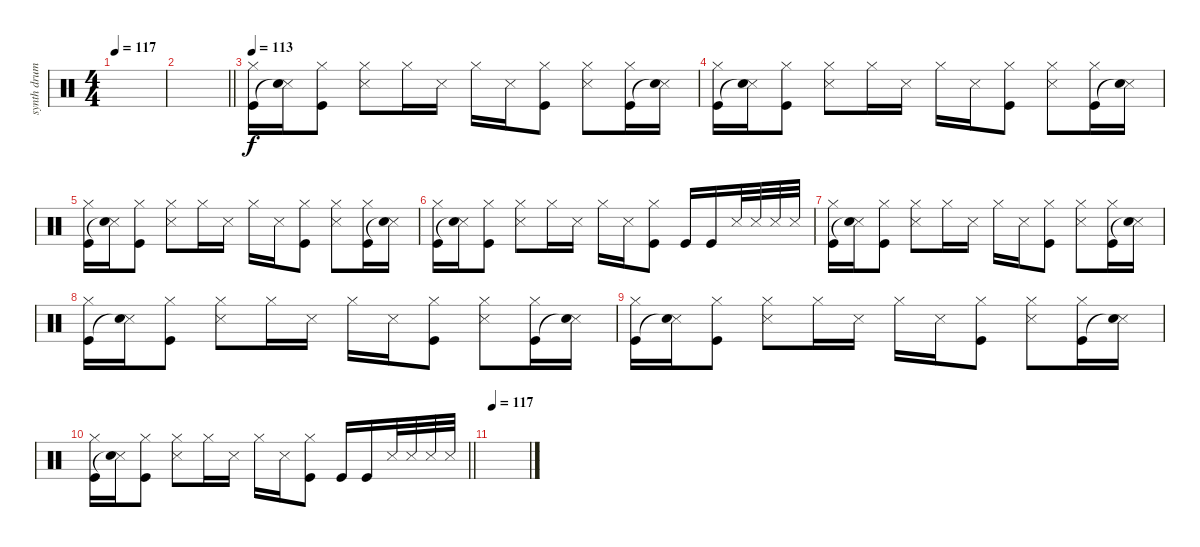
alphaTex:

\track ("synth drums" "synth drum") {instrument percussion}
\staff {score}
\articulation defaults
\ts (4 4)
\tempo 117
\clef neutral
\ks c
|
\barLineRight lightlight
|
\tempo 113
("Hi-Hat (closed)" "Kick (hit)").16 ("Metronome (hit)" "Snare (hit)"{t}).16 ("Hi-Hat (closed)" "Kick (hit)").8 ("Hi-Hat (closed)" "Metronome (hit)").8 "Hi-Hat (closed)".16 "Metronome (hit)".16 "Hi-Hat (closed)".16 "Metronome (hit)".16 ("Hi-Hat (closed)" "Kick (hit)").8 ("Hi-Hat (closed)" "Metronome (hit)").8 ("Hi-Hat (closed)" "Kick (hit)").16 ("Metronome (hit)" "Snare (hit)"{t}).16 |
("Hi-Hat (closed)" "Kick (hit)").16 ("Metronome (hit)" "Snare (hit)"{t}).16 ("Hi-Hat (closed)" "Kick (hit)").8 ("Hi-Hat (closed)" "Metronome (hit)").8 "Hi-Hat (closed)".16 "Metronome (hit)".16 "Hi-Hat (closed)".16 "Metronome (hit)".16 ("Hi-Hat (closed)" "Kick (hit)").8 ("Hi-Hat (closed)" "Metronome (hit)").8 ("Hi-Hat (closed)" "Kick (hit)").16 ("Metronome (hit)" "Snare (hit)"{t}).16 |
("Hi-Hat (closed)" "Kick (hit)").16 ("Metronome (hit)" "Snare (hit)"{t}).16 ("Hi-Hat (closed)" "Kick (hit)").8 ("Hi-Hat (closed)" "Metronome (hit)").8 "Hi-Hat (closed)".16 "Metronome (hit)".16 "Hi-Hat (closed)".16 "Metronome (hit)".16 ("Hi-Hat (closed)" "Kick (hit)").8 ("Hi-Hat (closed)" "Metronome (hit)").8 ("Hi-Hat (closed)" "Kick (hit)").16 ("Metronome (hit)" "Snare (hit)"{t}).16 |
("Hi-Hat (closed)" "Kick (hit)").16 ("Metronome (hit)" "Snare (hit)"{t}).16 ("Hi-Hat (closed)" "Kick (hit)").8 ("Hi-Hat (closed)" "Metronome (hit)").8 "Hi-Hat (closed)".16 "Metronome (hit)".16 "Hi-Hat (closed)".16 "Metronome (hit)".16 ("Hi-Hat (closed)" "Kick (hit)").8 "Kick (hit)".16 "Kick (hit)".16 "Metronome (hit)".32 "Metronome (hit)".32 "Metronome (hit)".32 "Metronome (hit)".32 |
("Hi-Hat (closed)" "Kick (hit)").16 ("Metronome (hit)" "Snare (hit)"{t}).16 ("Hi-Hat (closed)" "Kick (hit)").8 ("Hi-Hat (closed)" "Metronome (hit)").8 "Hi-Hat (closed)".16 "Metronome (hit)".16 "Hi-Hat (closed)".16 "Metronome (hit)".16 ("Hi-Hat (closed)" "Kick (hit)").8 ("Hi-Hat (closed)" "Metronome (hit)").8 ("Hi-Hat (closed)" "Kick (hit)").16 ("Metronome (hit)" "Snare (hit)"{t}).16 |
("Hi-Hat (closed)" "Kick (hit)").16 ("Metronome (hit)" "Snare (hit)"{t}).16 ("Hi-Hat (closed)" "Kick (hit)").8 ("Hi-Hat (closed)" "Metronome (hit)").8 "Hi-Hat (closed)".16 "Metronome (hit)".16 "Hi-Hat (closed)".16 "Metronome (hit)".16 ("Hi-Hat (closed)" "Kick (hit)").8 ("Hi-Hat (closed)" "Metronome (hit)").8 ("Hi-Hat (closed)" "Kick (hit)").16 ("Metronome (hit)" "Snare (hit)"{t}).16 |
("Hi-Hat (closed)" "Kick (hit)").16 ("Metronome (hit)" "Snare (hit)"{t}).16 ("Hi-Hat (closed)" "Kick (hit)").8 ("Hi-Hat (closed)" "Metronome (hit)").8 "Hi-Hat (closed)".16 "Metronome (hit)".16 "Hi-Hat (closed)".16 "Metronome (hit)".16 ("Hi-Hat (closed)" "Kick (hit)").8 ("Hi-Hat (closed)" "Metronome (hit)").8 ("Hi-Hat (closed)" "Kick (hit)").16 ("Metronome (hit)" "Snare (hit)"{t}).16 |
\barLineRight lightlight
("Hi-Hat (closed)" "Kick (hit)").16 ("Metronome (hit)" "Snare (hit)"{t}).16 ("Hi-Hat (closed)" "Kick (hit)").8 ("Hi-Hat (closed)" "Metronome (hit)").8 "Hi-Hat (closed)".16 "Metronome (hit)".16 "Hi-Hat (closed)".16 "Metronome (hit)".16 ("Hi-Hat (closed)" "Kick (hit)").8 "Kick (hit)".16 "Kick (hit)".16 "Metronome (hit)".32 "Metronome (hit)".32 "Metronome (hit)".32 "Metronome (hit)".32 |
\tempo 117
